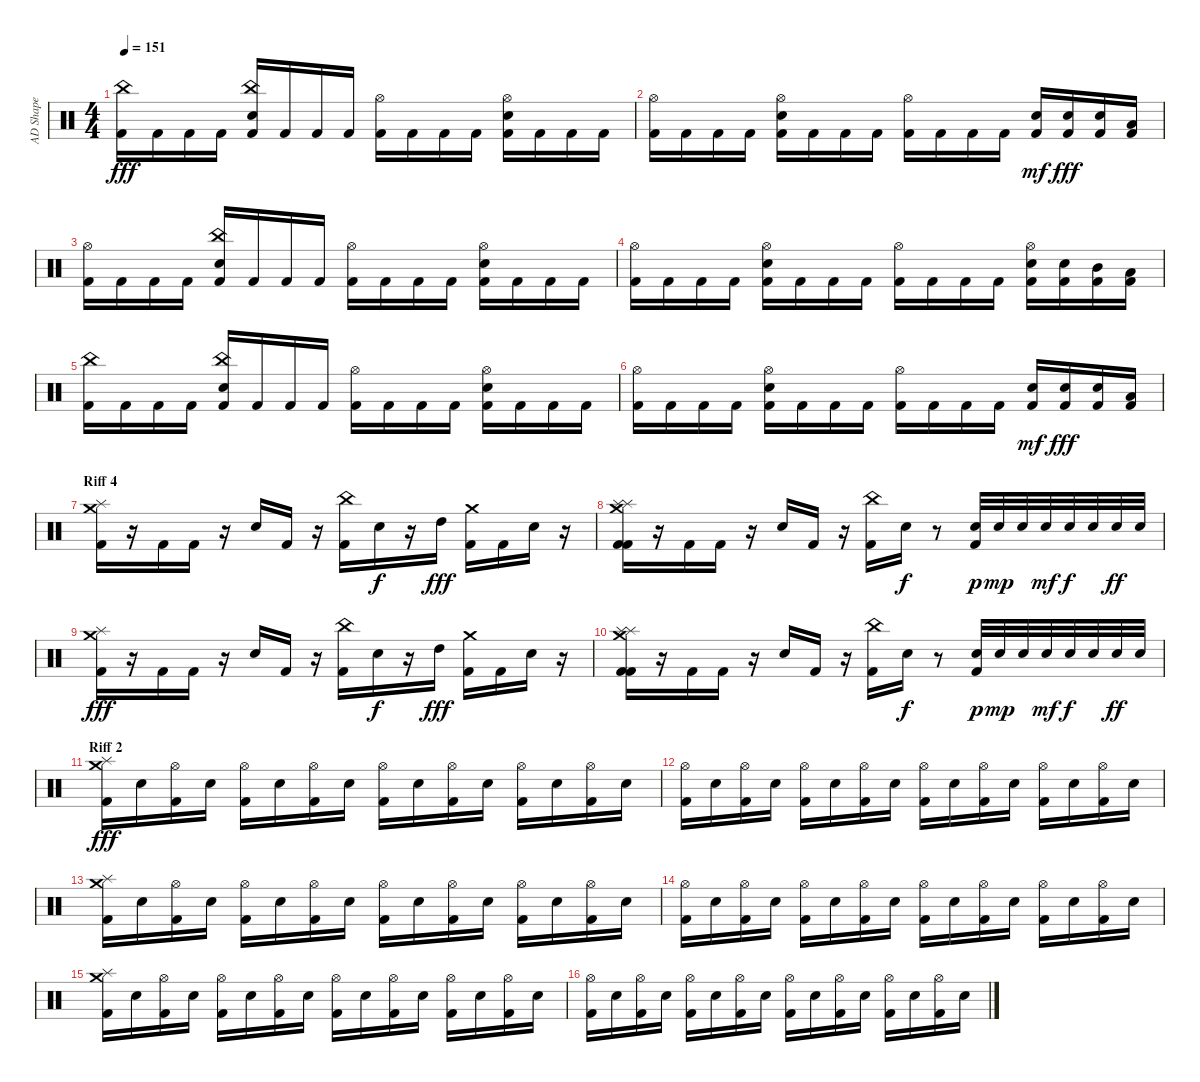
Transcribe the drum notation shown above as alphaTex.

\track ("AD Shape" "AD Shape") {instrument percussion}
\staff {score}
\articulation defaults
\ts (4 4)
\tempo 151
\clef neutral
\ks c
("Kick (hit) 2" "China (hit)").16{dy fff} "Kick (hit) 2".16 "Kick (hit) 2".16 "Kick (hit) 2".16 ("Kick (hit) 2" "Snare (hit) 2" "China (hit)").16 "Kick (hit) 2".16 "Kick (hit) 2".16 "Kick (hit) 2".16 ("Kick (hit) 2" "Hi-Hat (open)").16 "Kick (hit) 2".16 "Kick (hit) 2".16 "Kick (hit) 2".16 ("Kick (hit) 2" "Snare (hit) 2" "Hi-Hat (open)").16 "Kick (hit) 2".16 "Kick (hit) 2".16 "Kick (hit) 2".16 |
("Kick (hit) 2" "Hi-Hat (open)").16 "Kick (hit) 2".16 "Kick (hit) 2".16 "Kick (hit) 2".16 ("Kick (hit) 2" "Snare (hit) 2" "Hi-Hat (open)").16 "Kick (hit) 2".16 "Kick (hit) 2".16 "Kick (hit) 2".16 ("Kick (hit) 2" "Hi-Hat (open)").16 "Kick (hit) 2".16 "Kick (hit) 2".16 "Kick (hit) 2".16 ("Kick (hit) 2" "Snare (hit) 2").16{dy mf} ("Kick (hit) 2" "Snare (hit) 2").16{dy fff} ("Kick (hit) 2" "Snare (hit) 2").16 ("Kick (hit) 2" "Low Tom (hit)").16 |
("Kick (hit) 2" "Hi-Hat (open)").16 "Kick (hit) 2".16 "Kick (hit) 2".16 "Kick (hit) 2".16 ("Kick (hit) 2" "Snare (hit) 2" "China (hit)").16 "Kick (hit) 2".16 "Kick (hit) 2".16 "Kick (hit) 2".16 ("Kick (hit) 2" "Hi-Hat (open)").16 "Kick (hit) 2".16 "Kick (hit) 2".16 "Kick (hit) 2".16 ("Kick (hit) 2" "Snare (hit) 2" "Hi-Hat (open)").16 "Kick (hit) 2".16 "Kick (hit) 2".16 "Kick (hit) 2".16 |
("Kick (hit) 2" "Hi-Hat (open)").16 "Kick (hit) 2".16 "Kick (hit) 2".16 "Kick (hit) 2".16 ("Kick (hit) 2" "Snare (hit) 2" "Hi-Hat (open)").16 "Kick (hit) 2".16 "Kick (hit) 2".16 "Kick (hit) 2".16 ("Kick (hit) 2" "Hi-Hat (open)").16 "Kick (hit) 2".16 "Kick (hit) 2".16 "Kick (hit) 2".16 ("Kick (hit) 2" "Snare (hit) 2" "Hi-Hat (open)").16 ("Kick (hit) 2" "Snare (hit) 2").16 ("Kick (hit) 2" "Mid Tom (hit)").16 ("Kick (hit) 2" "Low Tom (hit)").16 |
("Kick (hit) 2" "China (hit)").16 "Kick (hit) 2".16 "Kick (hit) 2".16 "Kick (hit) 2".16 ("Kick (hit) 2" "Snare (hit) 2" "China (hit)").16 "Kick (hit) 2".16 "Kick (hit) 2".16 "Kick (hit) 2".16 ("Kick (hit) 2" "Hi-Hat (open)").16 "Kick (hit) 2".16 "Kick (hit) 2".16 "Kick (hit) 2".16 ("Kick (hit) 2" "Snare (hit) 2" "Hi-Hat (open)").16 "Kick (hit) 2".16 "Kick (hit) 2".16 "Kick (hit) 2".16 |
("Kick (hit) 2" "Hi-Hat (open)").16 "Kick (hit) 2".16 "Kick (hit) 2".16 "Kick (hit) 2".16 ("Kick (hit) 2" "Snare (hit) 2" "Hi-Hat (open)").16 "Kick (hit) 2".16 "Kick (hit) 2".16 "Kick (hit) 2".16 ("Kick (hit) 2" "Hi-Hat (open)").16 "Kick (hit) 2".16 "Kick (hit) 2".16 "Kick (hit) 2".16 ("Kick (hit) 2" "Snare (hit) 2").16{dy mf} ("Kick (hit) 2" "Snare (hit) 2").16{dy fff} ("Kick (hit) 2" "Snare (hit) 2").16 ("Kick (hit) 2" "Low Tom (hit)").16 |
\section ("" "Riff 4")
("Kick (hit) 2" "Splash (hit)" "Crash medium (hit)").16 r.16 "Kick (hit) 2".16 "Kick (hit) 2".16 r.16 "Snare (hit) 2".16 "Kick (hit) 2".16 r.16 ("Kick (hit) 2" "China (hit)").16 "Snare (hit) 2".16{dy f} r.16 "High Tom (hit)".16{dy fff} ("Kick (hit) 2" "Crash medium (hit)").16 "Kick (hit) 2".16 "Snare (hit) 2".16 r.16 |
("Kick (hit) 2" "Splash (hit)" "Kick (hit) 2" "Splash (hit)" "Crash medium (hit)").16 r.16 "Kick (hit) 2".16 "Kick (hit) 2".16 r.16 "Snare (hit) 2".16 "Kick (hit) 2".16 r.16 ("Kick (hit) 2" "China (hit)").16 "Snare (hit) 2".16{dy f} r.8 ("Kick (hit) 2" "Snare (hit) 2").32{dy p} "Snare (hit) 2".32{dy mp} "Snare (hit) 2".32 "Snare (hit) 2".32{dy mf} "Snare (hit) 2".32{dy f} "Snare (hit) 2".32 "Snare (hit) 2".32{dy ff} "Snare (hit) 2".32 |
("Kick (hit) 2" "Splash (hit)" "Crash medium (hit)").16{dy fff} r.16 "Kick (hit) 2".16 "Kick (hit) 2".16 r.16 "Snare (hit) 2".16 "Kick (hit) 2".16 r.16 ("Kick (hit) 2" "China (hit)").16 "Snare (hit) 2".16{dy f} r.16 "High Tom (hit)".16{dy fff} ("Kick (hit) 2" "Crash medium (hit)").16 "Kick (hit) 2".16 "Snare (hit) 2".16 r.16 |
("Kick (hit) 2" "Splash (hit)" "Kick (hit) 2" "Splash (hit)" "Crash medium (hit)").16 r.16 "Kick (hit) 2".16 "Kick (hit) 2".16 r.16 "Snare (hit) 2".16 "Kick (hit) 2".16 r.16 ("Kick (hit) 2" "China (hit)").16 "Snare (hit) 2".16{dy f} r.8 ("Kick (hit) 2" "Snare (hit) 2").32{dy p} "Snare (hit) 2".32{dy mp} "Snare (hit) 2".32 "Snare (hit) 2".32{dy mf} "Snare (hit) 2".32{dy f} "Snare (hit) 2".32 "Snare (hit) 2".32{dy ff} "Snare (hit) 2".32 |
\section ("" "Riff 2")
("Kick (hit) 2" "Splash (hit)" "Crash medium (hit)").16{dy fff} "Snare (hit) 2".16 ("Kick (hit) 2" "Hi-Hat (open)").16 "Snare (hit) 2".16 ("Kick (hit) 2" "Hi-Hat (open)").16 "Snare (hit) 2".16 ("Kick (hit) 2" "Hi-Hat (open)").16 "Snare (hit) 2".16 ("Kick (hit) 2" "Hi-Hat (open)").16 "Snare (hit) 2".16 ("Kick (hit) 2" "Hi-Hat (open)").16 "Snare (hit) 2".16 ("Kick (hit) 2" "Hi-Hat (open)").16 "Snare (hit) 2".16 ("Kick (hit) 2" "Hi-Hat (open)").16 "Snare (hit) 2".16 |
("Kick (hit) 2" "Hi-Hat (open)").16 "Snare (hit) 2".16 ("Kick (hit) 2" "Hi-Hat (open)").16 "Snare (hit) 2".16 ("Kick (hit) 2" "Hi-Hat (open)").16 "Snare (hit) 2".16 ("Kick (hit) 2" "Hi-Hat (open)").16 "Snare (hit) 2".16 ("Kick (hit) 2" "Hi-Hat (open)").16 "Snare (hit) 2".16 ("Kick (hit) 2" "Hi-Hat (open)").16 "Snare (hit) 2".16 ("Kick (hit) 2" "Hi-Hat (open)").16 "Snare (hit) 2".16 ("Kick (hit) 2" "Hi-Hat (open)").16 "Snare (hit) 2".16 |
("Kick (hit) 2" "Splash (hit)" "Crash medium (hit)").16 "Snare (hit) 2".16 ("Kick (hit) 2" "Hi-Hat (open)").16 "Snare (hit) 2".16 ("Kick (hit) 2" "Hi-Hat (open)").16 "Snare (hit) 2".16 ("Kick (hit) 2" "Hi-Hat (open)").16 "Snare (hit) 2".16 ("Kick (hit) 2" "Hi-Hat (open)").16 "Snare (hit) 2".16 ("Kick (hit) 2" "Hi-Hat (open)").16 "Snare (hit) 2".16 ("Kick (hit) 2" "Hi-Hat (open)").16 "Snare (hit) 2".16 ("Kick (hit) 2" "Hi-Hat (open)").16 "Snare (hit) 2".16 |
("Kick (hit) 2" "Hi-Hat (open)").16 "Snare (hit) 2".16 ("Kick (hit) 2" "Hi-Hat (open)").16 "Snare (hit) 2".16 ("Kick (hit) 2" "Hi-Hat (open)").16 "Snare (hit) 2".16 ("Kick (hit) 2" "Hi-Hat (open)").16 "Snare (hit) 2".16 ("Kick (hit) 2" "Hi-Hat (open)").16 "Snare (hit) 2".16 ("Kick (hit) 2" "Hi-Hat (open)").16 "Snare (hit) 2".16 ("Kick (hit) 2" "Hi-Hat (open)").16 "Snare (hit) 2".16 ("Kick (hit) 2" "Hi-Hat (open)").16 "Snare (hit) 2".16 |
("Kick (hit) 2" "Splash (hit)" "Crash medium (hit)").16 "Snare (hit) 2".16 ("Kick (hit) 2" "Hi-Hat (open)").16 "Snare (hit) 2".16 ("Kick (hit) 2" "Hi-Hat (open)").16 "Snare (hit) 2".16 ("Kick (hit) 2" "Hi-Hat (open)").16 "Snare (hit) 2".16 ("Kick (hit) 2" "Hi-Hat (open)").16 "Snare (hit) 2".16 ("Kick (hit) 2" "Hi-Hat (open)").16 "Snare (hit) 2".16 ("Kick (hit) 2" "Hi-Hat (open)").16 "Snare (hit) 2".16 ("Kick (hit) 2" "Hi-Hat (open)").16 "Snare (hit) 2".16 |
("Kick (hit) 2" "Hi-Hat (open)").16 "Snare (hit) 2".16 ("Kick (hit) 2" "Hi-Hat (open)").16 "Snare (hit) 2".16 ("Kick (hit) 2" "Hi-Hat (open)").16 "Snare (hit) 2".16 ("Kick (hit) 2" "Hi-Hat (open)").16 "Snare (hit) 2".16 ("Kick (hit) 2" "Hi-Hat (open)").16 "Snare (hit) 2".16 ("Kick (hit) 2" "Hi-Hat (open)").16 "Snare (hit) 2".16 ("Kick (hit) 2" "Hi-Hat (open)").16 "Snare (hit) 2".16 ("Kick (hit) 2" "Hi-Hat (open)").16 "Snare (hit) 2".16
